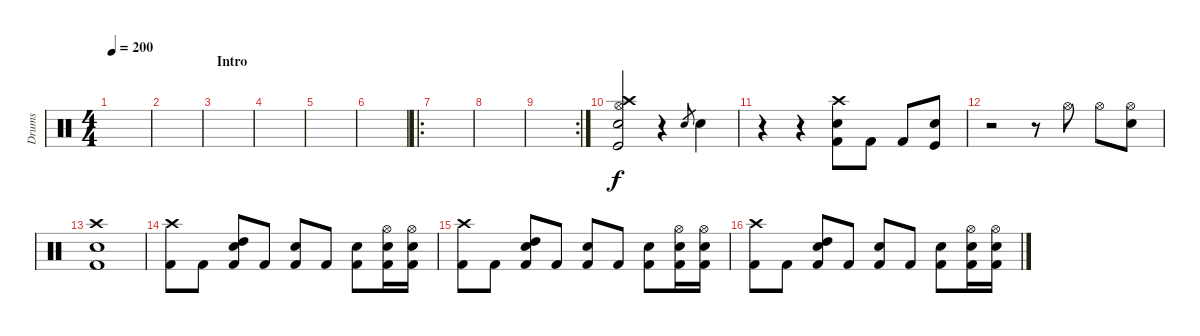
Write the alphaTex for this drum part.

\track ("Drums" "Drums") {instrument percussion}
\staff {score}
\articulation defaults
\ts (4 4)
\tempo 200
\clef neutral
\ks c
|
|
\section ("" "Intro")
|
|
|
|
\ro
|
|
\rc 2
|
("Kick (hit)" "Crash high (hit)" "Hi-Hat (open)" "Snare (hit) 2").2 r.4 "Electric Snare (hit)".8{gr} "Electric Snare (hit)".4 |
r.4 r.4 ("Kick (hit) 2" "Electric Snare (hit)" "Crash high (hit)").8 "Kick (hit) 2".8 "Kick (hit) 2".8 ("Kick (hit)" "Electric Snare (hit)").8 |
r.2 r.8 "Hi-Hat (open)".8 "Hi-Hat (open)".8 ("Electric Snare (hit)" "Hi-Hat (open)").8 |
("Crash high (hit)" "Kick (hit) 2" "Electric Snare (hit)").1 |
("Kick (hit) 2" "Crash high (hit)").8 "Kick (hit) 2".8 ("Kick (hit) 2" "Electric Snare (hit)" "High Tom (hit)").8 "Kick (hit) 2".8 ("Kick (hit) 2" "Electric Snare (hit)").8 "Kick (hit) 2".8 ("Kick (hit) 2" "Electric Snare (hit)").8 ("Kick (hit) 2" "Hi-Hat (open)" "Electric Snare (hit)").16 ("Kick (hit) 2" "Hi-Hat (open)" "Electric Snare (hit)").16 |
("Kick (hit) 2" "Crash high (hit)").8 "Kick (hit) 2".8 ("Kick (hit) 2" "Electric Snare (hit)" "High Tom (hit)").8 "Kick (hit) 2".8 ("Kick (hit) 2" "Electric Snare (hit)").8 "Kick (hit) 2".8 ("Kick (hit) 2" "Electric Snare (hit)").8 ("Kick (hit) 2" "Hi-Hat (open)" "Electric Snare (hit)").16 ("Kick (hit) 2" "Hi-Hat (open)" "Electric Snare (hit)").16 |
("Kick (hit) 2" "Crash high (hit)").8 "Kick (hit) 2".8 ("Kick (hit) 2" "Electric Snare (hit)" "High Tom (hit)").8 "Kick (hit) 2".8 ("Kick (hit) 2" "Electric Snare (hit)").8 "Kick (hit) 2".8 ("Kick (hit) 2" "Electric Snare (hit)").8 ("Kick (hit) 2" "Hi-Hat (open)" "Electric Snare (hit)").16 ("Kick (hit) 2" "Hi-Hat (open)" "Electric Snare (hit)").16
